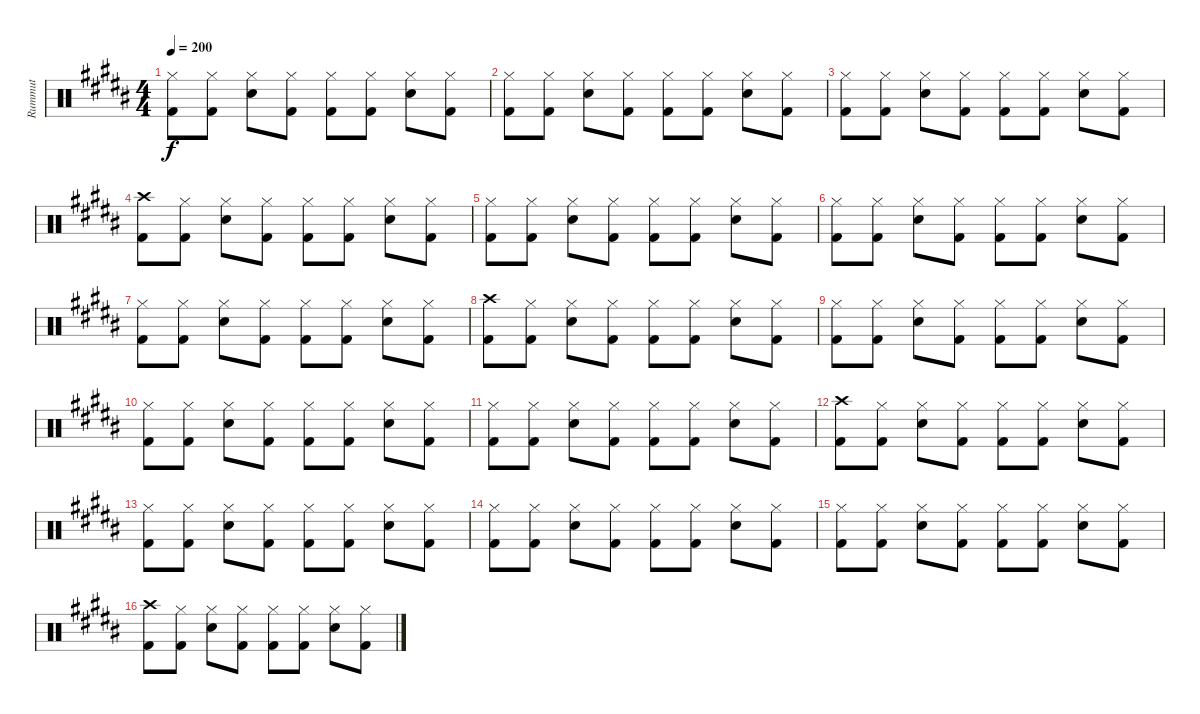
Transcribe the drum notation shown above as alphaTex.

\track ("Rummut" "Rummut") {instrument percussion}
\staff {score}
\articulation defaults
\ts (4 4)
\tempo 200
\clef neutral
\ks b
("Hi-Hat (closed)" "Kick (hit) 2").8{dy f} ("Hi-Hat (closed)" "Kick (hit) 2").8 ("Hi-Hat (closed)" "Electric Snare (hit)").8 ("Hi-Hat (closed)" "Kick (hit) 2").8 ("Hi-Hat (closed)" "Kick (hit) 2").8 ("Hi-Hat (closed)" "Kick (hit) 2").8 ("Hi-Hat (closed)" "Electric Snare (hit)").8 ("Hi-Hat (closed)" "Kick (hit) 2").8 |
("Hi-Hat (closed)" "Kick (hit) 2").8 ("Hi-Hat (closed)" "Kick (hit) 2").8 ("Hi-Hat (closed)" "Electric Snare (hit)").8 ("Hi-Hat (closed)" "Kick (hit) 2").8 ("Hi-Hat (closed)" "Kick (hit) 2").8 ("Hi-Hat (closed)" "Kick (hit) 2").8 ("Hi-Hat (closed)" "Electric Snare (hit)").8 ("Hi-Hat (closed)" "Kick (hit) 2").8 |
("Hi-Hat (closed)" "Kick (hit) 2").8 ("Hi-Hat (closed)" "Kick (hit) 2").8 ("Hi-Hat (closed)" "Electric Snare (hit)").8 ("Hi-Hat (closed)" "Kick (hit) 2").8 ("Hi-Hat (closed)" "Kick (hit) 2").8 ("Hi-Hat (closed)" "Kick (hit) 2").8 ("Hi-Hat (closed)" "Electric Snare (hit)").8 ("Hi-Hat (closed)" "Kick (hit) 2").8 |
("Crash high (hit)" "Kick (hit) 2").8 ("Hi-Hat (closed)" "Kick (hit) 2").8 ("Hi-Hat (closed)" "Electric Snare (hit)").8 ("Hi-Hat (closed)" "Kick (hit) 2").8 ("Hi-Hat (closed)" "Kick (hit) 2").8 ("Hi-Hat (closed)" "Kick (hit) 2").8 ("Hi-Hat (closed)" "Electric Snare (hit)").8 ("Hi-Hat (closed)" "Kick (hit) 2").8 |
("Hi-Hat (closed)" "Kick (hit) 2").8 ("Hi-Hat (closed)" "Kick (hit) 2").8 ("Hi-Hat (closed)" "Electric Snare (hit)").8 ("Hi-Hat (closed)" "Kick (hit) 2").8 ("Hi-Hat (closed)" "Kick (hit) 2").8 ("Hi-Hat (closed)" "Kick (hit) 2").8 ("Hi-Hat (closed)" "Electric Snare (hit)").8 ("Hi-Hat (closed)" "Kick (hit) 2").8 |
("Hi-Hat (closed)" "Kick (hit) 2").8 ("Hi-Hat (closed)" "Kick (hit) 2").8 ("Hi-Hat (closed)" "Electric Snare (hit)").8 ("Hi-Hat (closed)" "Kick (hit) 2").8 ("Hi-Hat (closed)" "Kick (hit) 2").8 ("Hi-Hat (closed)" "Kick (hit) 2").8 ("Hi-Hat (closed)" "Electric Snare (hit)").8 ("Hi-Hat (closed)" "Kick (hit) 2").8 |
("Hi-Hat (closed)" "Kick (hit) 2").8 ("Hi-Hat (closed)" "Kick (hit) 2").8 ("Hi-Hat (closed)" "Electric Snare (hit)").8 ("Hi-Hat (closed)" "Kick (hit) 2").8 ("Hi-Hat (closed)" "Kick (hit) 2").8 ("Hi-Hat (closed)" "Kick (hit) 2").8 ("Hi-Hat (closed)" "Electric Snare (hit)").8 ("Hi-Hat (closed)" "Kick (hit) 2").8 |
("Crash high (hit)" "Kick (hit) 2").8 ("Hi-Hat (closed)" "Kick (hit) 2").8 ("Hi-Hat (closed)" "Electric Snare (hit)").8 ("Hi-Hat (closed)" "Kick (hit) 2").8 ("Hi-Hat (closed)" "Kick (hit) 2").8 ("Hi-Hat (closed)" "Kick (hit) 2").8 ("Hi-Hat (closed)" "Electric Snare (hit)").8 ("Hi-Hat (closed)" "Kick (hit) 2").8 |
("Hi-Hat (closed)" "Kick (hit) 2").8 ("Hi-Hat (closed)" "Kick (hit) 2").8 ("Hi-Hat (closed)" "Electric Snare (hit)").8 ("Hi-Hat (closed)" "Kick (hit) 2").8 ("Hi-Hat (closed)" "Kick (hit) 2").8 ("Hi-Hat (closed)" "Kick (hit) 2").8 ("Hi-Hat (closed)" "Electric Snare (hit)").8 ("Hi-Hat (closed)" "Kick (hit) 2").8 |
("Hi-Hat (closed)" "Kick (hit) 2").8 ("Hi-Hat (closed)" "Kick (hit) 2").8 ("Hi-Hat (closed)" "Electric Snare (hit)").8 ("Hi-Hat (closed)" "Kick (hit) 2").8 ("Hi-Hat (closed)" "Kick (hit) 2").8 ("Hi-Hat (closed)" "Kick (hit) 2").8 ("Hi-Hat (closed)" "Electric Snare (hit)").8 ("Hi-Hat (closed)" "Kick (hit) 2").8 |
("Hi-Hat (closed)" "Kick (hit) 2").8 ("Hi-Hat (closed)" "Kick (hit) 2").8 ("Hi-Hat (closed)" "Electric Snare (hit)").8 ("Hi-Hat (closed)" "Kick (hit) 2").8 ("Hi-Hat (closed)" "Kick (hit) 2").8 ("Hi-Hat (closed)" "Kick (hit) 2").8 ("Hi-Hat (closed)" "Electric Snare (hit)").8 ("Hi-Hat (closed)" "Kick (hit) 2").8 |
("Crash high (hit)" "Kick (hit) 2").8 ("Hi-Hat (closed)" "Kick (hit) 2").8 ("Hi-Hat (closed)" "Electric Snare (hit)").8 ("Hi-Hat (closed)" "Kick (hit) 2").8 ("Hi-Hat (closed)" "Kick (hit) 2").8 ("Hi-Hat (closed)" "Kick (hit) 2").8 ("Hi-Hat (closed)" "Electric Snare (hit)").8 ("Hi-Hat (closed)" "Kick (hit) 2").8 |
("Hi-Hat (closed)" "Kick (hit) 2").8 ("Hi-Hat (closed)" "Kick (hit) 2").8 ("Hi-Hat (closed)" "Electric Snare (hit)").8 ("Hi-Hat (closed)" "Kick (hit) 2").8 ("Hi-Hat (closed)" "Kick (hit) 2").8 ("Hi-Hat (closed)" "Kick (hit) 2").8 ("Hi-Hat (closed)" "Electric Snare (hit)").8 ("Hi-Hat (closed)" "Kick (hit) 2").8 |
("Hi-Hat (closed)" "Kick (hit) 2").8 ("Hi-Hat (closed)" "Kick (hit) 2").8 ("Hi-Hat (closed)" "Electric Snare (hit)").8 ("Hi-Hat (closed)" "Kick (hit) 2").8 ("Hi-Hat (closed)" "Kick (hit) 2").8 ("Hi-Hat (closed)" "Kick (hit) 2").8 ("Hi-Hat (closed)" "Electric Snare (hit)").8 ("Hi-Hat (closed)" "Kick (hit) 2").8 |
("Hi-Hat (closed)" "Kick (hit) 2").8 ("Hi-Hat (closed)" "Kick (hit) 2").8 ("Hi-Hat (closed)" "Electric Snare (hit)").8 ("Hi-Hat (closed)" "Kick (hit) 2").8 ("Hi-Hat (closed)" "Kick (hit) 2").8 ("Hi-Hat (closed)" "Kick (hit) 2").8 ("Hi-Hat (closed)" "Electric Snare (hit)").8 ("Hi-Hat (closed)" "Kick (hit) 2").8 |
("Crash high (hit)" "Kick (hit) 2").8 ("Hi-Hat (closed)" "Kick (hit) 2").8 ("Hi-Hat (closed)" "Electric Snare (hit)").8 ("Hi-Hat (closed)" "Kick (hit) 2").8 ("Hi-Hat (closed)" "Kick (hit) 2").8 ("Hi-Hat (closed)" "Kick (hit) 2").8 ("Hi-Hat (closed)" "Electric Snare (hit)").8 ("Hi-Hat (closed)" "Kick (hit) 2").8
